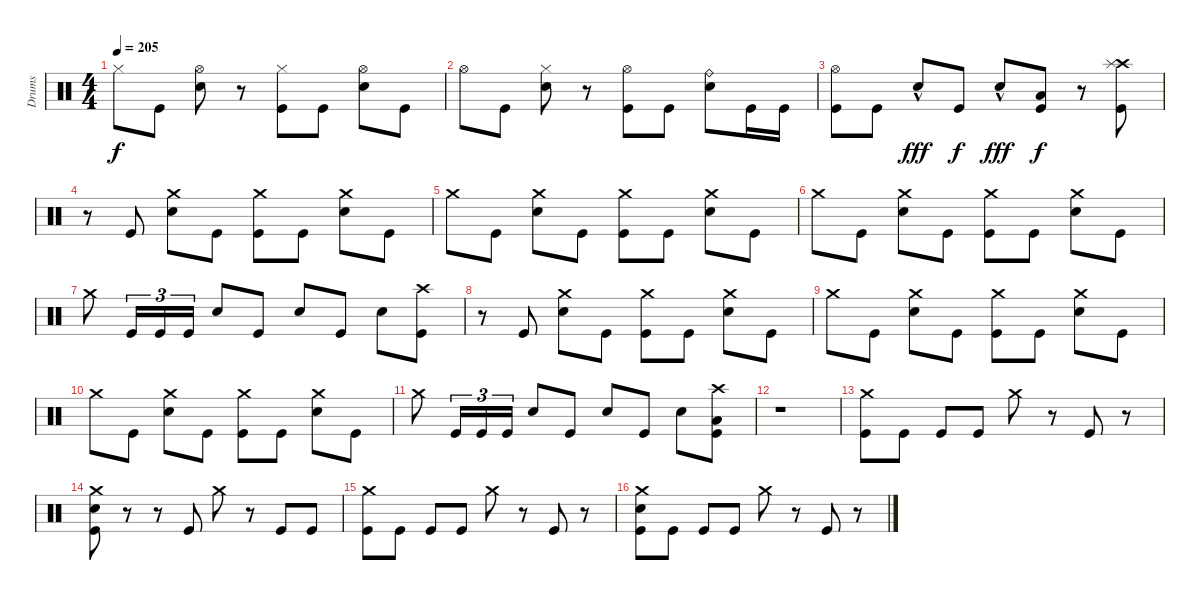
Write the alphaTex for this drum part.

\track ("Drums" "Drums") {instrument percussion}
\staff {score}
\articulation defaults
\ts (4 4)
\tempo 205
\clef neutral
\ks c "Hi-Hat (closed)".8{dy f} "Kick (hit)".8
("Electric Snare (hit)" "Hi-Hat (open)").8 r.8 ("Hi-Hat (closed)" "Kick (hit)").8 "Kick (hit)".8 ("Electric Snare (hit)" "Hi-Hat (open)").8 "Kick (hit)".8 |
"Hi-Hat (open)".8 "Kick (hit)".8 ("Electric Snare (hit)" "Hi-Hat (closed)").8 r.8 ("Hi-Hat (open)" "Kick (hit)").8 "Kick (hit)".8 ("Electric Snare (hit)" "Ride (bell)").8 "Kick (hit)".16 "Kick (hit)".16 |
("Hi-Hat (open)" "Kick (hit)").8 "Kick (hit)".8 "Electric Snare (hit)"{hac}.8{dy fff} "Kick (hit)".8{dy f} "Electric Snare (hit)"{hac}.8{dy fff} ("Low Floor Tom (hit)" "Kick (hit)").8{dy f} r.8 ("Crash high (hit)" "Splash (hit)" "Kick (hit)").8 |
r.8 "Kick (hit)".8 ("Electric Snare (hit)" "Crash medium (hit)").8 "Kick (hit)".8 ("Crash medium (hit)" "Kick (hit)").8 "Kick (hit)".8 ("Electric Snare (hit)" "Crash medium (hit)").8 "Kick (hit)".8 |
"Crash medium (hit)".8 "Kick (hit)".8 ("Electric Snare (hit)" "Crash medium (hit)").8 "Kick (hit)".8 ("Crash medium (hit)" "Kick (hit)").8 "Kick (hit)".8 ("Electric Snare (hit)" "Crash medium (hit)").8 "Kick (hit)".8 |
"Crash medium (hit)".8 "Kick (hit)".8 ("Electric Snare (hit)" "Crash medium (hit)").8 "Kick (hit)".8 ("Crash medium (hit)" "Kick (hit)").8 "Kick (hit)".8 ("Electric Snare (hit)" "Crash medium (hit)").8 "Kick (hit)".8 |
"Crash medium (hit)".8 "Kick (hit)".16{tu (3 2)} "Kick (hit)".16{tu (3 2)} "Kick (hit)".16{tu (3 2)} "Electric Snare (hit)".8 "Kick (hit)".8 "Electric Snare (hit)".8 "Kick (hit)".8 "Electric Snare (hit)".8 ("Crash high (hit)" "Kick (hit)").8 |
r.8 "Kick (hit)".8 ("Electric Snare (hit)" "Crash medium (hit)").8 "Kick (hit)".8 ("Crash medium (hit)" "Kick (hit)").8 "Kick (hit)".8 ("Electric Snare (hit)" "Crash medium (hit)").8 "Kick (hit)".8 |
"Crash medium (hit)".8 "Kick (hit)".8 ("Electric Snare (hit)" "Crash medium (hit)").8 "Kick (hit)".8 ("Crash medium (hit)" "Kick (hit)").8 "Kick (hit)".8 ("Electric Snare (hit)" "Crash medium (hit)").8 "Kick (hit)".8 |
"Crash medium (hit)".8 "Kick (hit)".8 ("Electric Snare (hit)" "Crash medium (hit)").8 "Kick (hit)".8 ("Crash medium (hit)" "Kick (hit)").8 "Kick (hit)".8 ("Electric Snare (hit)" "Crash medium (hit)").8 "Kick (hit)".8 |
"Crash medium (hit)".8 "Kick (hit)".16{tu (3 2)} "Kick (hit)".16{tu (3 2)} "Kick (hit)".16{tu (3 2)} "Electric Snare (hit)".8 "Kick (hit)".8 "Electric Snare (hit)".8 "Kick (hit)".8 "Electric Snare (hit)".8 ("Crash high (hit)" "Low Floor Tom (hit)" "Kick (hit)").8 |
r.1 |
("Crash medium (hit)" "Kick (hit)").8 "Kick (hit)".8 "Kick (hit)".8 "Kick (hit)".8 "Crash medium (hit)".8 r.8 "Kick (hit)".8 r.8 |
("Electric Snare (hit)" "Crash medium (hit)" "Kick (hit)").8 r.8 r.8 "Kick (hit)".8 "Crash medium (hit)".8 r.8 "Kick (hit)".8 "Kick (hit)".8 |
("Crash medium (hit)" "Kick (hit)").8 "Kick (hit)".8 "Kick (hit)".8 "Kick (hit)".8 "Crash medium (hit)".8 r.8 "Kick (hit)".8 r.8 |
("Electric Snare (hit)" "Crash medium (hit)" "Kick (hit)").8 "Kick (hit)".8 "Kick (hit)".8 "Kick (hit)".8 "Crash medium (hit)".8 r.8 "Kick (hit)".8 r.8
